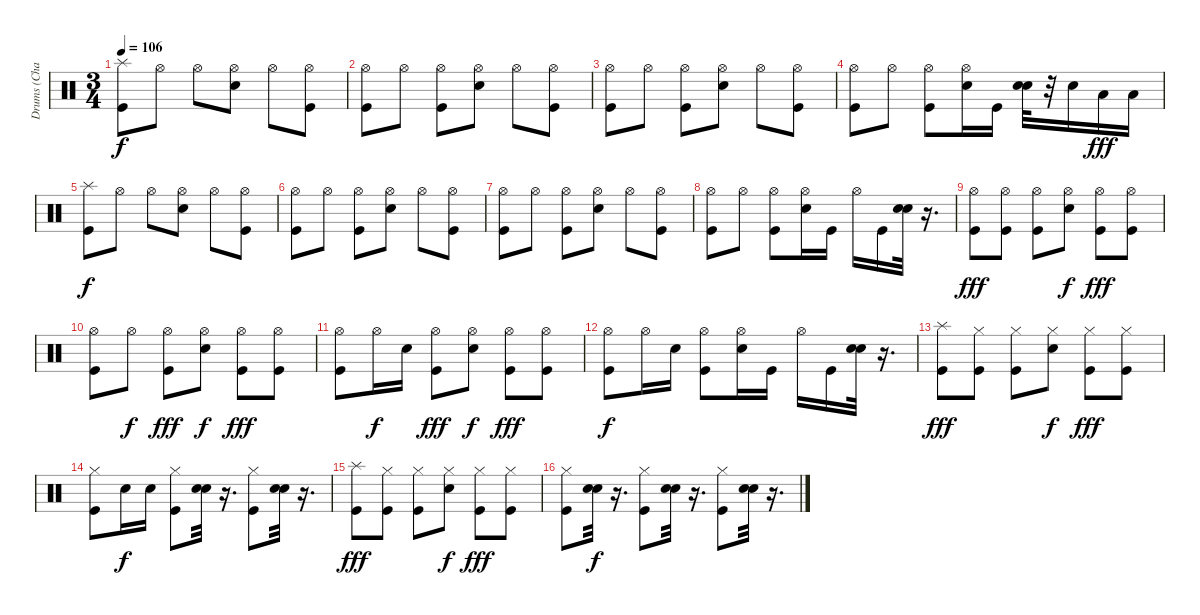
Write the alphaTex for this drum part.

\track ("Drums (Chad?)" "Drums (Cha") {instrument percussion}
\staff {score}
\articulation defaults
\ts (3 4)
\tempo 106
\clef neutral
\ks c
("Splash (hit)" "Kick (hit)").8{dy f} "Hi-Hat (open)".8 "Hi-Hat (open)".8 ("Hi-Hat (open)" "Snare (hit) 2").8 "Hi-Hat (open)".8 ("Hi-Hat (open)" "Kick (hit)").8 |
("Hi-Hat (open)" "Kick (hit)").8 "Hi-Hat (open)".8 ("Hi-Hat (open)" "Kick (hit)").8 ("Hi-Hat (open)" "Snare (hit) 2").8 "Hi-Hat (open)".8 ("Hi-Hat (open)" "Kick (hit)").8 |
("Hi-Hat (open)" "Kick (hit)").8 "Hi-Hat (open)".8 ("Hi-Hat (open)" "Kick (hit)").8 ("Hi-Hat (open)" "Snare (hit) 2").8 "Hi-Hat (open)".8 ("Hi-Hat (open)" "Kick (hit)").8 |
("Hi-Hat (open)" "Kick (hit)").8 "Hi-Hat (open)".8 ("Hi-Hat (open)" "Kick (hit)").8 ("Hi-Hat (open)" "Snare (hit) 2").16 "Kick (hit)".16 ("Snare (hit) 2" "Snare (hit) 2").32 r.32 "Snare (hit) 2".16 "Low Tom (hit)".16{dy fff} "Low Tom (hit)".16 |
("Splash (hit)" "Kick (hit)").8{dy f} "Hi-Hat (open)".8 "Hi-Hat (open)".8 ("Hi-Hat (open)" "Snare (hit) 2").8 "Hi-Hat (open)".8 ("Hi-Hat (open)" "Kick (hit)").8 |
("Hi-Hat (open)" "Kick (hit)").8 "Hi-Hat (open)".8 ("Hi-Hat (open)" "Kick (hit)").8 ("Hi-Hat (open)" "Snare (hit) 2").8 "Hi-Hat (open)".8 ("Hi-Hat (open)" "Kick (hit)").8 |
("Hi-Hat (open)" "Kick (hit)").8 "Hi-Hat (open)".8 ("Hi-Hat (open)" "Kick (hit)").8 ("Hi-Hat (open)" "Snare (hit) 2").8 "Hi-Hat (open)".8 ("Hi-Hat (open)" "Kick (hit)").8 |
("Hi-Hat (open)" "Kick (hit)").8 "Hi-Hat (open)".8 ("Hi-Hat (open)" "Kick (hit)").8 ("Hi-Hat (open)" "Snare (hit) 2").16 "Kick (hit)".16 "Hi-Hat (open)".16 "Kick (hit)".16 ("Snare (hit) 2" "Snare (hit) 2").32 r.16{d} |
("Hi-Hat (open)" "Kick (hit)").8{dy fff} ("Hi-Hat (open)" "Kick (hit)").8 ("Hi-Hat (open)" "Kick (hit)").8 ("Hi-Hat (open)" "Snare (hit) 2").8{dy f} ("Hi-Hat (open)" "Kick (hit)").8{dy fff} ("Hi-Hat (open)" "Kick (hit)").8 |
("Hi-Hat (open)" "Kick (hit)").8 "Hi-Hat (open)".8{dy f} ("Hi-Hat (open)" "Kick (hit)").8{dy fff} ("Hi-Hat (open)" "Snare (hit) 2").8{dy f} ("Hi-Hat (open)" "Kick (hit)").8{dy fff} ("Hi-Hat (open)" "Kick (hit)").8 |
("Hi-Hat (open)" "Kick (hit)").8 "Hi-Hat (open)".16{dy f} "Snare (hit) 2".16 ("Hi-Hat (open)" "Kick (hit)").8{dy fff} ("Hi-Hat (open)" "Snare (hit) 2").8{dy f} ("Hi-Hat (open)" "Kick (hit)").8{dy fff} ("Hi-Hat (open)" "Kick (hit)").8 |
("Hi-Hat (open)" "Kick (hit)").8{dy f} "Hi-Hat (open)".16 "Snare (hit) 2".16 ("Hi-Hat (open)" "Kick (hit)").8 ("Hi-Hat (open)" "Snare (hit) 2").16 "Kick (hit)".16 "Hi-Hat (open)".16 "Kick (hit)".16 ("Snare (hit) 2" "Snare (hit) 2").32 r.16{d} |
("Splash (hit)" "Kick (hit)").8{dy fff} ("Hi-Hat (closed)" "Kick (hit)").8 ("Hi-Hat (closed)" "Kick (hit)").8 ("Hi-Hat (closed)" "Snare (hit) 2").8{dy f} ("Hi-Hat (closed)" "Kick (hit)").8{dy fff} ("Hi-Hat (closed)" "Kick (hit)").8 |
("Hi-Hat (closed)" "Kick (hit)").8 "Snare (hit) 2".16{dy f} "Snare (hit) 2".16 ("Hi-Hat (closed)" "Kick (hit)").8 ("Snare (hit) 2" "Snare (hit) 2").32 r.16{d} ("Hi-Hat (closed)" "Kick (hit)").8 ("Snare (hit) 2" "Snare (hit) 2").32 r.16{d} |
("Splash (hit)" "Kick (hit)").8{dy fff} ("Hi-Hat (closed)" "Kick (hit)").8 ("Hi-Hat (closed)" "Kick (hit)").8 ("Hi-Hat (closed)" "Snare (hit) 2").8{dy f} ("Hi-Hat (closed)" "Kick (hit)").8{dy fff} ("Hi-Hat (closed)" "Kick (hit)").8 |
("Hi-Hat (closed)" "Kick (hit)").8 ("Snare (hit) 2" "Snare (hit) 2").32{dy f} r.16{d} ("Hi-Hat (closed)" "Kick (hit)").8 ("Snare (hit) 2" "Snare (hit) 2").32 r.16{d} ("Hi-Hat (closed)" "Kick (hit)").8 ("Snare (hit) 2" "Snare (hit) 2").32 r.16{d}
